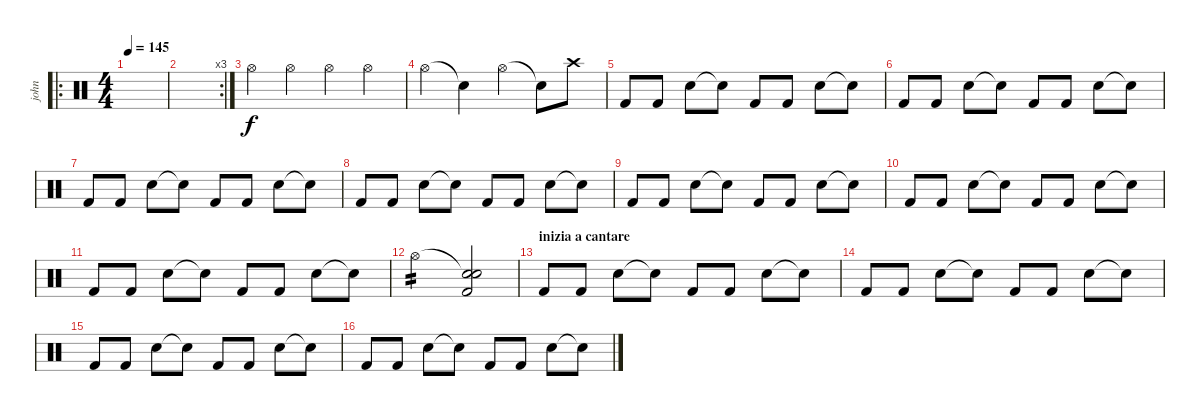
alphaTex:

\track ("john" "john") {instrument percussion}
\staff {score}
\articulation defaults
\ro
\ts (4 4)
\tempo 145
\clef neutral
\ks c
|
\rc 3
|
"Hi-Hat (open)".4 "Hi-Hat (open)".4 "Hi-Hat (open)".4 "Hi-Hat (open)".4 |
"Hi-Hat (open)".4 "Snare (hit)"{t}.4 "Hi-Hat (open)".4 "Snare (hit)"{t}.8 "Crash high (hit)".8 |
"Kick (hit) 2".8 "Kick (hit) 2".8 "Snare (hit) 2".8 "Snare (hit)"{t}.8 "Kick (hit) 2".8 "Kick (hit) 2".8 "Snare (hit) 2".8 "Snare (hit)"{t}.8 |
"Kick (hit) 2".8 "Kick (hit) 2".8 "Snare (hit) 2".8 "Snare (hit)"{t}.8 "Kick (hit) 2".8 "Kick (hit) 2".8 "Snare (hit) 2".8 "Snare (hit)"{t}.8 |
"Kick (hit) 2".8 "Kick (hit) 2".8 "Snare (hit) 2".8 "Snare (hit)"{t}.8 "Kick (hit) 2".8 "Kick (hit) 2".8 "Snare (hit) 2".8 "Snare (hit)"{t}.8 |
"Kick (hit) 2".8 "Kick (hit) 2".8 "Snare (hit) 2".8 "Snare (hit)"{t}.8 "Kick (hit) 2".8 "Kick (hit) 2".8 "Snare (hit) 2".8 "Snare (hit)"{t}.8 |
"Kick (hit) 2".8 "Kick (hit) 2".8 "Snare (hit) 2".8 "Snare (hit)"{t}.8 "Kick (hit) 2".8 "Kick (hit) 2".8 "Snare (hit) 2".8 "Snare (hit)"{t}.8 |
"Kick (hit) 2".8 "Kick (hit) 2".8 "Snare (hit) 2".8 "Snare (hit)"{t}.8 "Kick (hit) 2".8 "Kick (hit) 2".8 "Snare (hit) 2".8 "Snare (hit)"{t}.8 |
"Kick (hit) 2".8 "Kick (hit) 2".8 "Snare (hit) 2".8 "Snare (hit)"{t}.8 "Kick (hit) 2".8 "Kick (hit) 2".8 "Snare (hit) 2".8 "Snare (hit)"{t}.8 |
"Hi-Hat (open)".2{tp 2} ("Snare (hit)"{t} "Snare (hit) 2" "Kick (hit) 2").2 |
\section ("" "inizia a cantare")
"Kick (hit) 2".8 "Kick (hit) 2".8 "Snare (hit) 2".8 "Snare (hit)"{t}.8 "Kick (hit) 2".8 "Kick (hit) 2".8 "Snare (hit) 2".8 "Snare (hit)"{t}.8 |
"Kick (hit) 2".8 "Kick (hit) 2".8 "Snare (hit) 2".8 "Snare (hit)"{t}.8 "Kick (hit) 2".8 "Kick (hit) 2".8 "Snare (hit) 2".8 "Snare (hit)"{t}.8 |
"Kick (hit) 2".8 "Kick (hit) 2".8 "Snare (hit) 2".8 "Snare (hit)"{t}.8 "Kick (hit) 2".8 "Kick (hit) 2".8 "Snare (hit) 2".8 "Snare (hit)"{t}.8 |
"Kick (hit) 2".8 "Kick (hit) 2".8 "Snare (hit) 2".8 "Snare (hit)"{t}.8 "Kick (hit) 2".8 "Kick (hit) 2".8 "Snare (hit) 2".8 "Snare (hit)"{t}.8
